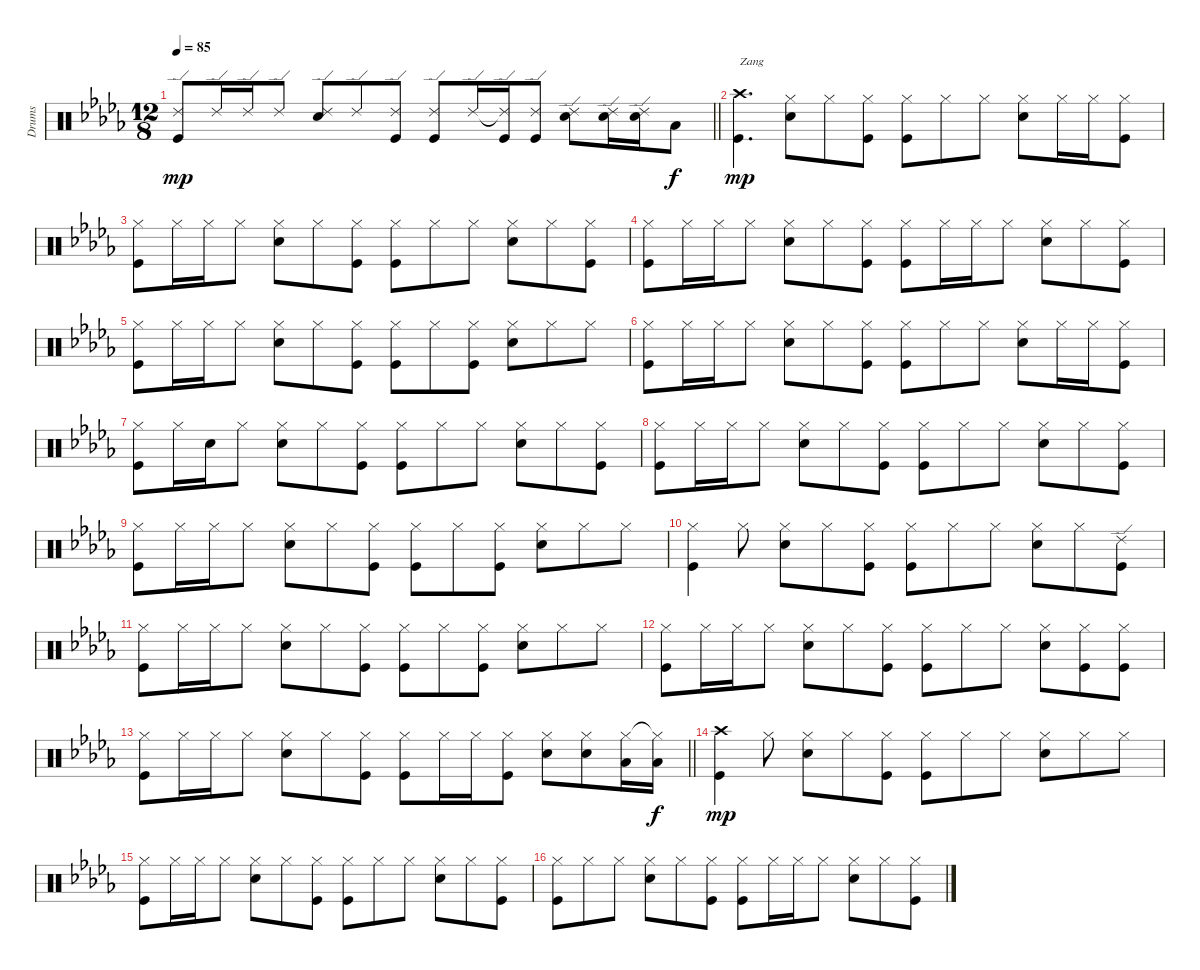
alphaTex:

\track ("Drums" "Drums") {instrument percussion}
\staff {score}
\articulation defaults
\ts (12 8)
\tempo 85
\clef neutral
\barLineRight lightlight
\ks bbminor
("Ride (edge) 2" "Kick (hit)").8{dy mp} "Ride (edge) 2".16 "Ride (edge) 2".16 "Ride (edge) 2".8 ("Ride (edge) 2" "Snare (hit) 2").8 "Ride (edge) 2".8 ("Ride (edge) 2" "Kick (hit)").8 ("Ride (edge) 2" "Kick (hit)").8 "Ride (edge) 2".16 ("Ride (edge) 2"{t} "Kick (hit)").16 ("Ride (edge) 2" "Kick (hit)").8 ("Ride (edge) 2" "Snare (hit) 2").8 ("Ride (edge) 2" "Snare (hit) 2").16 ("Ride (edge) 2" "Snare (hit) 2").16 "Low Tom (hit)".8{dy f} |
("Crash high (hit)" "Kick (hit)").4{d txt "Zang" dy mp} ("Hi-Hat (closed)" "Snare (hit) 2").8 "Hi-Hat (closed)".8 ("Hi-Hat (closed)" "Kick (hit)").8 ("Hi-Hat (closed)" "Kick (hit)").8 "Hi-Hat (closed)".8 "Hi-Hat (closed)".8 ("Hi-Hat (closed)" "Snare (hit) 2").8 "Hi-Hat (closed)".16 "Hi-Hat (closed)".16 ("Hi-Hat (closed)" "Kick (hit)").8 |
("Hi-Hat (closed)" "Kick (hit)").8 "Hi-Hat (closed)".16 "Hi-Hat (closed)".16 "Hi-Hat (closed)".8 ("Hi-Hat (closed)" "Snare (hit) 2").8 "Hi-Hat (closed)".8 ("Hi-Hat (closed)" "Kick (hit)").8 ("Hi-Hat (closed)" "Kick (hit)").8 "Hi-Hat (closed)".8 "Hi-Hat (closed)".8 ("Hi-Hat (closed)" "Snare (hit) 2").8 "Hi-Hat (closed)".8 ("Hi-Hat (closed)" "Kick (hit)").8 |
("Hi-Hat (closed)" "Kick (hit)").8 "Hi-Hat (closed)".16 "Hi-Hat (closed)".16 "Hi-Hat (closed)".8 ("Hi-Hat (closed)" "Snare (hit) 2").8 "Hi-Hat (closed)".8 ("Hi-Hat (closed)" "Kick (hit)").8 ("Hi-Hat (closed)" "Kick (hit)").8 "Hi-Hat (closed)".16 "Hi-Hat (closed)".16 "Hi-Hat (closed)".8 ("Hi-Hat (closed)" "Snare (hit) 2").8 "Hi-Hat (closed)".8 ("Hi-Hat (closed)" "Kick (hit)").8 |
("Hi-Hat (closed)" "Kick (hit)").8 "Hi-Hat (closed)".16 "Hi-Hat (closed)".16 "Hi-Hat (closed)".8 ("Hi-Hat (closed)" "Snare (hit) 2").8 "Hi-Hat (closed)".8 ("Hi-Hat (closed)" "Kick (hit)").8 ("Hi-Hat (closed)" "Kick (hit)").8 "Hi-Hat (closed)".8 ("Hi-Hat (closed)" "Kick (hit)").8 ("Hi-Hat (closed)" "Snare (hit) 2").8 "Hi-Hat (closed)".8 "Hi-Hat (closed)".8 |
("Hi-Hat (closed)" "Kick (hit)").8 "Hi-Hat (closed)".16 "Hi-Hat (closed)".16 "Hi-Hat (closed)".8 ("Hi-Hat (closed)" "Snare (hit) 2").8 "Hi-Hat (closed)".8 ("Hi-Hat (closed)" "Kick (hit)").8 ("Hi-Hat (closed)" "Kick (hit)").8 "Hi-Hat (closed)".8 "Hi-Hat (closed)".8 ("Hi-Hat (closed)" "Snare (hit) 2").8 "Hi-Hat (closed)".16 "Hi-Hat (closed)".16 ("Hi-Hat (closed)" "Kick (hit)").8 |
("Hi-Hat (closed)" "Kick (hit)").8 "Hi-Hat (closed)".16 "Snare (hit)".16 "Hi-Hat (closed)".8 ("Hi-Hat (closed)" "Snare (hit) 2").8 "Hi-Hat (closed)".8 ("Hi-Hat (closed)" "Kick (hit)").8 ("Hi-Hat (closed)" "Kick (hit)").8 "Hi-Hat (closed)".8 "Hi-Hat (closed)".8 ("Hi-Hat (closed)" "Snare (hit) 2").8 "Hi-Hat (closed)".8 ("Hi-Hat (closed)" "Kick (hit)").8 |
("Hi-Hat (closed)" "Kick (hit)").8 "Hi-Hat (closed)".16 "Hi-Hat (closed)".16 "Hi-Hat (closed)".8 ("Hi-Hat (closed)" "Snare (hit) 2").8 "Hi-Hat (closed)".8 ("Hi-Hat (closed)" "Kick (hit)").8 ("Hi-Hat (closed)" "Kick (hit)").8 "Hi-Hat (closed)".8 "Hi-Hat (closed)".8 ("Hi-Hat (closed)" "Snare (hit) 2").8 "Hi-Hat (closed)".8 ("Hi-Hat (closed)" "Kick (hit)").8 |
("Hi-Hat (closed)" "Kick (hit)").8 "Hi-Hat (closed)".16 "Hi-Hat (closed)".16 "Hi-Hat (closed)".8 ("Hi-Hat (closed)" "Snare (hit) 2").8 "Hi-Hat (closed)".8 ("Hi-Hat (closed)" "Kick (hit)").8 ("Hi-Hat (closed)" "Kick (hit)").8 "Hi-Hat (closed)".8 ("Hi-Hat (closed)" "Kick (hit)").8 ("Hi-Hat (closed)" "Snare (hit) 2").8 "Hi-Hat (closed)".8 "Hi-Hat (closed)".8 |
("Hi-Hat (closed)" "Kick (hit)").4 "Hi-Hat (closed)".8 ("Hi-Hat (closed)" "Snare (hit) 2").8 "Hi-Hat (closed)".8 ("Hi-Hat (closed)" "Kick (hit)").8 ("Hi-Hat (closed)" "Kick (hit)").8 "Hi-Hat (closed)".8 "Hi-Hat (closed)".8 ("Hi-Hat (closed)" "Snare (hit) 2").8 "Hi-Hat (closed)".8 ("Ride (edge) 2" "Kick (hit)").8 |
("Hi-Hat (closed)" "Kick (hit)").8 "Hi-Hat (closed)".16 "Hi-Hat (closed)".16 "Hi-Hat (closed)".8 ("Hi-Hat (closed)" "Snare (hit) 2").8 "Hi-Hat (closed)".8 ("Hi-Hat (closed)" "Kick (hit)").8 ("Hi-Hat (closed)" "Kick (hit)").8 "Hi-Hat (closed)".8 ("Hi-Hat (closed)" "Kick (hit)").8 ("Hi-Hat (closed)" "Snare (hit) 2").8 "Hi-Hat (closed)".8 "Hi-Hat (closed)".8 |
("Hi-Hat (closed)" "Kick (hit)").8 "Hi-Hat (closed)".16 "Hi-Hat (closed)".16 "Hi-Hat (closed)".8 ("Hi-Hat (closed)" "Snare (hit) 2").8 "Hi-Hat (closed)".8 ("Hi-Hat (closed)" "Kick (hit)").8 ("Hi-Hat (closed)" "Kick (hit)").8 "Hi-Hat (closed)".8 "Hi-Hat (closed)".8 ("Hi-Hat (closed)" "Snare (hit) 2").8 ("Hi-Hat (closed)" "Kick (hit)").8 ("Hi-Hat (closed)" "Kick (hit)").8 |
\barLineRight lightlight
("Hi-Hat (closed)" "Kick (hit)").8 "Hi-Hat (closed)".16 "Hi-Hat (closed)".16 "Hi-Hat (closed)".8 ("Hi-Hat (closed)" "Snare (hit) 2").8 "Hi-Hat (closed)".8 ("Hi-Hat (closed)" "Kick (hit)").8 ("Hi-Hat (closed)" "Kick (hit)").8 "Hi-Hat (closed)".16 "Hi-Hat (closed)".16 ("Hi-Hat (closed)" "Kick (hit)").8 ("Hi-Hat (closed)" "Snare (hit) 2").8 ("Hi-Hat (closed)" "Snare (hit) 2").8 ("Hi-Hat (closed)" "Low Tom (hit)").16 ("Hi-Hat (closed)"{t} "Low Tom (hit)").16{dy f} |
("Crash high (hit)" "Kick (hit)").4{dy mp} "Hi-Hat (closed)".8 ("Hi-Hat (closed)" "Snare (hit) 2").8 "Hi-Hat (closed)".8 ("Hi-Hat (closed)" "Kick (hit)").8 ("Hi-Hat (closed)" "Kick (hit)").8 "Hi-Hat (closed)".8 "Hi-Hat (closed)".8 ("Hi-Hat (closed)" "Snare (hit) 2").8 "Hi-Hat (closed)".8 "Hi-Hat (closed)".8 |
("Hi-Hat (closed)" "Kick (hit)").8 "Hi-Hat (closed)".16 "Hi-Hat (closed)".16 "Hi-Hat (closed)".8 ("Hi-Hat (closed)" "Snare (hit) 2").8 "Hi-Hat (closed)".8 ("Hi-Hat (closed)" "Kick (hit)").8 ("Hi-Hat (closed)" "Kick (hit)").8 "Hi-Hat (closed)".8 "Hi-Hat (closed)".8 ("Hi-Hat (closed)" "Snare (hit) 2").8 "Hi-Hat (closed)".8 ("Hi-Hat (closed)" "Kick (hit)").8 |
("Hi-Hat (closed)" "Kick (hit)").8 "Hi-Hat (closed)".8 "Hi-Hat (closed)".8 ("Hi-Hat (closed)" "Snare (hit) 2").8 "Hi-Hat (closed)".8 ("Hi-Hat (closed)" "Kick (hit)").8 ("Hi-Hat (closed)" "Kick (hit)").8 "Hi-Hat (closed)".16 "Hi-Hat (closed)".16 "Hi-Hat (closed)".8 ("Hi-Hat (closed)" "Snare (hit) 2").8 "Hi-Hat (closed)".8 ("Hi-Hat (closed)" "Kick (hit)").8
